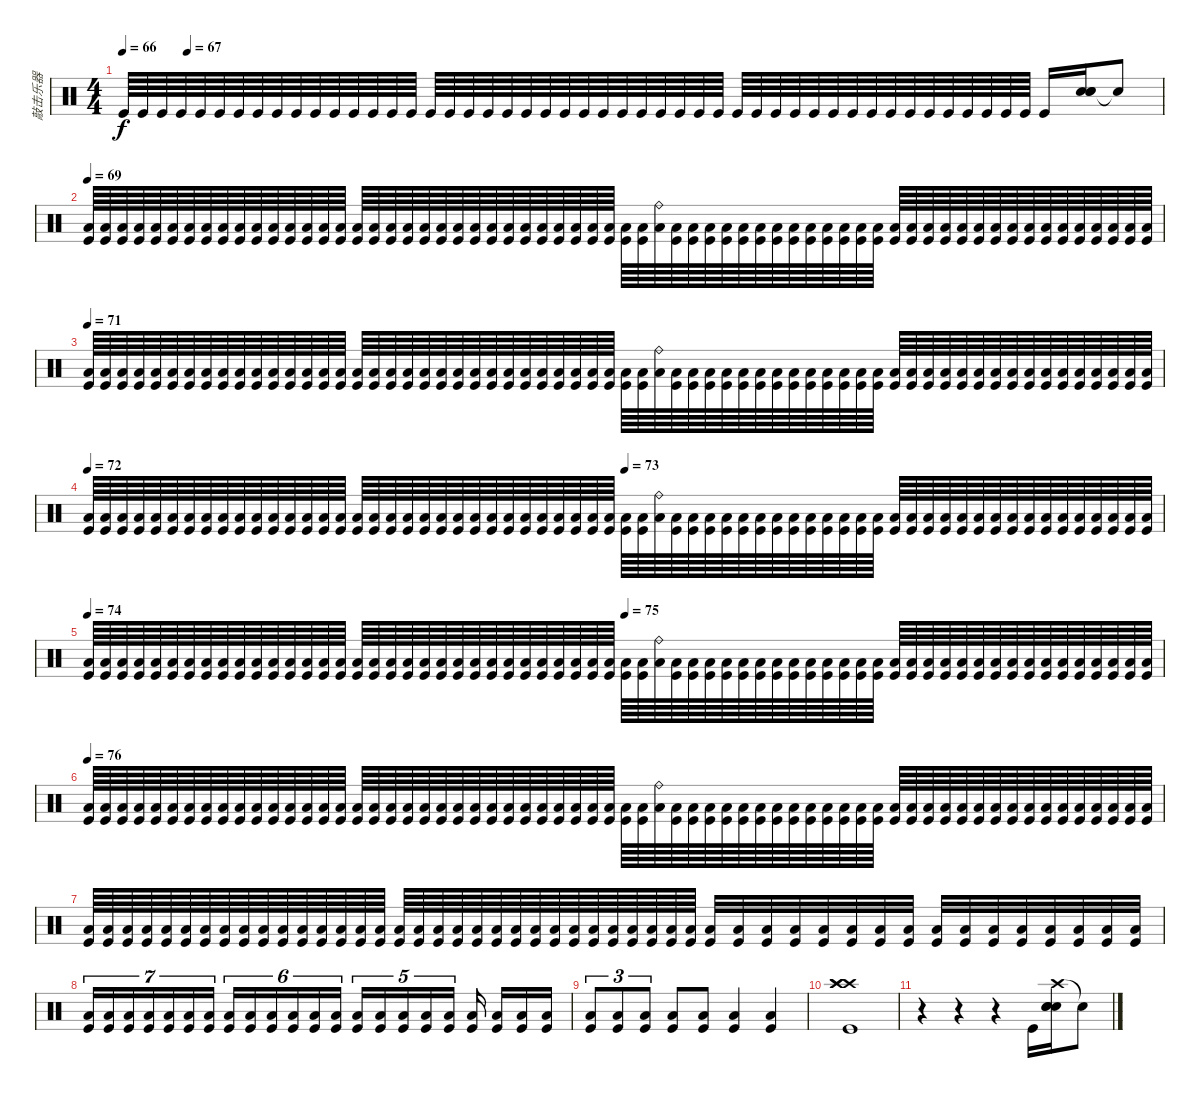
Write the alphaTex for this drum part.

\track ("敲击乐器" "敲击乐器") {instrument percussion}
\staff {score}
\articulation defaults
\ts (4 4)
\tempo 66
\tempo (67 0.0625)
\clef neutral
\ks c "Kick (hit)".64{dy f} "Kick (hit)".64 "Kick (hit)".64 "Kick (hit)".64 "Kick (hit)".64 "Kick (hit)".64 "Kick (hit)".64 "Kick (hit)".64 "Kick (hit)".64 "Kick (hit)".64 "Kick (hit)".64 "Kick (hit)".64 "Kick (hit)".64 "Kick (hit)".64 "Kick (hit)".64 "Kick (hit)".64 "Kick (hit)".64 "Kick (hit)".64 "Kick (hit)".64 "Kick (hit)".64 "Kick (hit)".64 "Kick (hit)".64 "Kick (hit)".64 "Kick (hit)".64 "Kick (hit)".64 "Kick (hit)".64 "Kick (hit)".64 "Kick (hit)".64 "Kick (hit)".64 "Kick (hit)".64 "Kick (hit)".64 "Kick (hit)".64 "Kick (hit)".64 "Kick (hit)".64 "Kick (hit)".64 "Kick (hit)".64 "Kick (hit)".64 "Kick (hit)".64 "Kick (hit)".64 "Kick (hit)".64 "Kick (hit)".64 "Kick (hit)".64 "Kick (hit)".64 "Kick (hit)".64 "Kick (hit)".64 "Kick (hit)".64 "Kick (hit)".64 "Kick (hit)".64 "Kick (hit)".16
("Snare (hit) 2" "Snare (hit) 2" "Snare (hit) 2").16 "Snare (hit)"{t}.8 |
\tempo 69
("Low Floor Tom (hit)" "Kick (hit)").64 ("Low Floor Tom (hit)" "Kick (hit)").64 ("Low Floor Tom (hit)" "Kick (hit)").64 ("Low Floor Tom (hit)" "Kick (hit)").64 ("Low Floor Tom (hit)" "Kick (hit)").64 ("Low Floor Tom (hit)" "Kick (hit)").64 ("Low Floor Tom (hit)" "Kick (hit)").64 ("Low Floor Tom (hit)" "Kick (hit)").64 ("Low Floor Tom (hit)" "Kick (hit)").64 ("Low Floor Tom (hit)" "Kick (hit)").64 ("Low Floor Tom (hit)" "Kick (hit)").64 ("Low Floor Tom (hit)" "Kick (hit)").64 ("Low Floor Tom (hit)" "Kick (hit)").64 ("Low Floor Tom (hit)" "Kick (hit)").64 ("Low Floor Tom (hit)" "Kick (hit)").64 ("Low Floor Tom (hit)" "Kick (hit)").64 ("Low Floor Tom (hit)" "Kick (hit)").64 ("Low Floor Tom (hit)" "Kick (hit)").64 ("Low Floor Tom (hit)" "Kick (hit)").64 ("Low Floor Tom (hit)" "Kick (hit)").64 ("Low Floor Tom (hit)" "Kick (hit)").64 ("Low Floor Tom (hit)" "Kick (hit)").64 ("Low Floor Tom (hit)" "Kick (hit)").64 ("Low Floor Tom (hit)" "Kick (hit)").64 ("Low Floor Tom (hit)" "Kick (hit)").64 ("Low Floor Tom (hit)" "Kick (hit)").64 ("Low Floor Tom (hit)" "Kick (hit)").64 ("Low Floor Tom (hit)" "Kick (hit)").64 ("Low Floor Tom (hit)" "Kick (hit)").64 ("Low Floor Tom (hit)" "Kick (hit)").64 ("Low Floor Tom (hit)" "Kick (hit)").64 ("Low Floor Tom (hit)" "Kick (hit)").64 ("Low Floor Tom (hit)" "Kick (hit)").64 ("Low Floor Tom (hit)" "Kick (hit)").64 ("Low Floor Tom (hit)" "Ride (bell)").64 ("Low Floor Tom (hit)" "Kick (hit)").64 ("Low Floor Tom (hit)" "Kick (hit)").64 ("Low Floor Tom (hit)" "Kick (hit)").64 ("Low Floor Tom (hit)" "Kick (hit)").64 ("Low Floor Tom (hit)" "Kick (hit)").64 ("Low Floor Tom (hit)" "Kick (hit)").64 ("Low Floor Tom (hit)" "Kick (hit)").64 ("Low Floor Tom (hit)" "Kick (hit)").64 ("Low Floor Tom (hit)" "Kick (hit)").64 ("Low Floor Tom (hit)" "Kick (hit)").64 ("Low Floor Tom (hit)" "Kick (hit)").64 ("Low Floor Tom (hit)" "Kick (hit)").64 ("Low Floor Tom (hit)" "Kick (hit)").64 ("Low Floor Tom (hit)" "Kick (hit)").64 ("Low Floor Tom (hit)" "Kick (hit)").64 ("Low Floor Tom (hit)" "Kick (hit)").64 ("Low Floor Tom (hit)" "Kick (hit)").64 ("Low Floor Tom (hit)" "Kick (hit)").64 ("Low Floor Tom (hit)" "Kick (hit)").64 ("Low Floor Tom (hit)" "Kick (hit)").64 ("Low Floor Tom (hit)" "Kick (hit)").64 ("Low Floor Tom (hit)" "Kick (hit)").64 ("Low Floor Tom (hit)" "Kick (hit)").64 ("Low Floor Tom (hit)" "Kick (hit)").64 ("Low Floor Tom (hit)" "Kick (hit)").64 ("Low Floor Tom (hit)" "Kick (hit)").64 ("Low Floor Tom (hit)" "Kick (hit)").64 ("Low Floor Tom (hit)" "Kick (hit)").64 ("Low Floor Tom (hit)" "Kick (hit)").64 |
\tempo 71
("Low Floor Tom (hit)" "Kick (hit)").64 ("Low Floor Tom (hit)" "Kick (hit)").64 ("Low Floor Tom (hit)" "Kick (hit)").64 ("Low Floor Tom (hit)" "Kick (hit)").64 ("Low Floor Tom (hit)" "Kick (hit)").64 ("Low Floor Tom (hit)" "Kick (hit)").64 ("Low Floor Tom (hit)" "Kick (hit)").64 ("Low Floor Tom (hit)" "Kick (hit)").64 ("Low Floor Tom (hit)" "Kick (hit)").64 ("Low Floor Tom (hit)" "Kick (hit)").64 ("Low Floor Tom (hit)" "Kick (hit)").64 ("Low Floor Tom (hit)" "Kick (hit)").64 ("Low Floor Tom (hit)" "Kick (hit)").64 ("Low Floor Tom (hit)" "Kick (hit)").64 ("Low Floor Tom (hit)" "Kick (hit)").64 ("Low Floor Tom (hit)" "Kick (hit)").64 ("Low Floor Tom (hit)" "Kick (hit)").64 ("Low Floor Tom (hit)" "Kick (hit)").64 ("Low Floor Tom (hit)" "Kick (hit)").64 ("Low Floor Tom (hit)" "Kick (hit)").64 ("Low Floor Tom (hit)" "Kick (hit)").64 ("Low Floor Tom (hit)" "Kick (hit)").64 ("Low Floor Tom (hit)" "Kick (hit)").64 ("Low Floor Tom (hit)" "Kick (hit)").64 ("Low Floor Tom (hit)" "Kick (hit)").64 ("Low Floor Tom (hit)" "Kick (hit)").64 ("Low Floor Tom (hit)" "Kick (hit)").64 ("Low Floor Tom (hit)" "Kick (hit)").64 ("Low Floor Tom (hit)" "Kick (hit)").64 ("Low Floor Tom (hit)" "Kick (hit)").64 ("Low Floor Tom (hit)" "Kick (hit)").64 ("Low Floor Tom (hit)" "Kick (hit)").64 ("Low Floor Tom (hit)" "Kick (hit)").64 ("Low Floor Tom (hit)" "Kick (hit)").64 ("Low Floor Tom (hit)" "Ride (bell)").64 ("Low Floor Tom (hit)" "Kick (hit)").64 ("Low Floor Tom (hit)" "Kick (hit)").64 ("Low Floor Tom (hit)" "Kick (hit)").64 ("Low Floor Tom (hit)" "Kick (hit)").64 ("Low Floor Tom (hit)" "Kick (hit)").64 ("Low Floor Tom (hit)" "Kick (hit)").64 ("Low Floor Tom (hit)" "Kick (hit)").64 ("Low Floor Tom (hit)" "Kick (hit)").64 ("Low Floor Tom (hit)" "Kick (hit)").64 ("Low Floor Tom (hit)" "Kick (hit)").64 ("Low Floor Tom (hit)" "Kick (hit)").64 ("Low Floor Tom (hit)" "Kick (hit)").64 ("Low Floor Tom (hit)" "Kick (hit)").64 ("Low Floor Tom (hit)" "Kick (hit)").64 ("Low Floor Tom (hit)" "Kick (hit)").64 ("Low Floor Tom (hit)" "Kick (hit)").64 ("Low Floor Tom (hit)" "Kick (hit)").64 ("Low Floor Tom (hit)" "Kick (hit)").64 ("Low Floor Tom (hit)" "Kick (hit)").64 ("Low Floor Tom (hit)" "Kick (hit)").64 ("Low Floor Tom (hit)" "Kick (hit)").64 ("Low Floor Tom (hit)" "Kick (hit)").64 ("Low Floor Tom (hit)" "Kick (hit)").64 ("Low Floor Tom (hit)" "Kick (hit)").64 ("Low Floor Tom (hit)" "Kick (hit)").64 ("Low Floor Tom (hit)" "Kick (hit)").64 ("Low Floor Tom (hit)" "Kick (hit)").64 ("Low Floor Tom (hit)" "Kick (hit)").64 ("Low Floor Tom (hit)" "Kick (hit)").64 |
\tempo 72
\tempo (73 0.5)
("Low Floor Tom (hit)" "Kick (hit)").64 ("Low Floor Tom (hit)" "Kick (hit)").64 ("Low Floor Tom (hit)" "Kick (hit)").64 ("Low Floor Tom (hit)" "Kick (hit)").64 ("Low Floor Tom (hit)" "Kick (hit)").64 ("Low Floor Tom (hit)" "Kick (hit)").64 ("Low Floor Tom (hit)" "Kick (hit)").64 ("Low Floor Tom (hit)" "Kick (hit)").64 ("Low Floor Tom (hit)" "Kick (hit)").64 ("Low Floor Tom (hit)" "Kick (hit)").64 ("Low Floor Tom (hit)" "Kick (hit)").64 ("Low Floor Tom (hit)" "Kick (hit)").64 ("Low Floor Tom (hit)" "Kick (hit)").64 ("Low Floor Tom (hit)" "Kick (hit)").64 ("Low Floor Tom (hit)" "Kick (hit)").64 ("Low Floor Tom (hit)" "Kick (hit)").64 ("Low Floor Tom (hit)" "Kick (hit)").64 ("Low Floor Tom (hit)" "Kick (hit)").64 ("Low Floor Tom (hit)" "Kick (hit)").64 ("Low Floor Tom (hit)" "Kick (hit)").64 ("Low Floor Tom (hit)" "Kick (hit)").64 ("Low Floor Tom (hit)" "Kick (hit)").64 ("Low Floor Tom (hit)" "Kick (hit)").64 ("Low Floor Tom (hit)" "Kick (hit)").64 ("Low Floor Tom (hit)" "Kick (hit)").64 ("Low Floor Tom (hit)" "Kick (hit)").64 ("Low Floor Tom (hit)" "Kick (hit)").64 ("Low Floor Tom (hit)" "Kick (hit)").64 ("Low Floor Tom (hit)" "Kick (hit)").64 ("Low Floor Tom (hit)" "Kick (hit)").64 ("Low Floor Tom (hit)" "Kick (hit)").64 ("Low Floor Tom (hit)" "Kick (hit)").64 ("Low Floor Tom (hit)" "Kick (hit)").64 ("Low Floor Tom (hit)" "Kick (hit)").64 ("Low Floor Tom (hit)" "Ride (bell)").64 ("Low Floor Tom (hit)" "Kick (hit)").64 ("Low Floor Tom (hit)" "Kick (hit)").64 ("Low Floor Tom (hit)" "Kick (hit)").64 ("Low Floor Tom (hit)" "Kick (hit)").64 ("Low Floor Tom (hit)" "Kick (hit)").64 ("Low Floor Tom (hit)" "Kick (hit)").64 ("Low Floor Tom (hit)" "Kick (hit)").64 ("Low Floor Tom (hit)" "Kick (hit)").64 ("Low Floor Tom (hit)" "Kick (hit)").64 ("Low Floor Tom (hit)" "Kick (hit)").64 ("Low Floor Tom (hit)" "Kick (hit)").64 ("Low Floor Tom (hit)" "Kick (hit)").64 ("Low Floor Tom (hit)" "Kick (hit)").64 ("Low Floor Tom (hit)" "Kick (hit)").64 ("Low Floor Tom (hit)" "Kick (hit)").64 ("Low Floor Tom (hit)" "Kick (hit)").64 ("Low Floor Tom (hit)" "Kick (hit)").64 ("Low Floor Tom (hit)" "Kick (hit)").64 ("Low Floor Tom (hit)" "Kick (hit)").64 ("Low Floor Tom (hit)" "Kick (hit)").64 ("Low Floor Tom (hit)" "Kick (hit)").64 ("Low Floor Tom (hit)" "Kick (hit)").64 ("Low Floor Tom (hit)" "Kick (hit)").64 ("Low Floor Tom (hit)" "Kick (hit)").64 ("Low Floor Tom (hit)" "Kick (hit)").64 ("Low Floor Tom (hit)" "Kick (hit)").64 ("Low Floor Tom (hit)" "Kick (hit)").64 ("Low Floor Tom (hit)" "Kick (hit)").64 ("Low Floor Tom (hit)" "Kick (hit)").64 |
\tempo 74
\tempo (75 0.5)
("Low Floor Tom (hit)" "Kick (hit)").64 ("Low Floor Tom (hit)" "Kick (hit)").64 ("Low Floor Tom (hit)" "Kick (hit)").64 ("Low Floor Tom (hit)" "Kick (hit)").64 ("Low Floor Tom (hit)" "Kick (hit)").64 ("Low Floor Tom (hit)" "Kick (hit)").64 ("Low Floor Tom (hit)" "Kick (hit)").64 ("Low Floor Tom (hit)" "Kick (hit)").64 ("Low Floor Tom (hit)" "Kick (hit)").64 ("Low Floor Tom (hit)" "Kick (hit)").64 ("Low Floor Tom (hit)" "Kick (hit)").64 ("Low Floor Tom (hit)" "Kick (hit)").64 ("Low Floor Tom (hit)" "Kick (hit)").64 ("Low Floor Tom (hit)" "Kick (hit)").64 ("Low Floor Tom (hit)" "Kick (hit)").64 ("Low Floor Tom (hit)" "Kick (hit)").64 ("Low Floor Tom (hit)" "Kick (hit)").64 ("Low Floor Tom (hit)" "Kick (hit)").64 ("Low Floor Tom (hit)" "Kick (hit)").64 ("Low Floor Tom (hit)" "Kick (hit)").64 ("Low Floor Tom (hit)" "Kick (hit)").64 ("Low Floor Tom (hit)" "Kick (hit)").64 ("Low Floor Tom (hit)" "Kick (hit)").64 ("Low Floor Tom (hit)" "Kick (hit)").64 ("Low Floor Tom (hit)" "Kick (hit)").64 ("Low Floor Tom (hit)" "Kick (hit)").64 ("Low Floor Tom (hit)" "Kick (hit)").64 ("Low Floor Tom (hit)" "Kick (hit)").64 ("Low Floor Tom (hit)" "Kick (hit)").64 ("Low Floor Tom (hit)" "Kick (hit)").64 ("Low Floor Tom (hit)" "Kick (hit)").64 ("Low Floor Tom (hit)" "Kick (hit)").64 ("Low Floor Tom (hit)" "Kick (hit)").64 ("Low Floor Tom (hit)" "Kick (hit)").64 ("Low Floor Tom (hit)" "Ride (bell)").64 ("Low Floor Tom (hit)" "Kick (hit)").64 ("Low Floor Tom (hit)" "Kick (hit)").64 ("Low Floor Tom (hit)" "Kick (hit)").64 ("Low Floor Tom (hit)" "Kick (hit)").64 ("Low Floor Tom (hit)" "Kick (hit)").64 ("Low Floor Tom (hit)" "Kick (hit)").64 ("Low Floor Tom (hit)" "Kick (hit)").64 ("Low Floor Tom (hit)" "Kick (hit)").64 ("Low Floor Tom (hit)" "Kick (hit)").64 ("Low Floor Tom (hit)" "Kick (hit)").64 ("Low Floor Tom (hit)" "Kick (hit)").64 ("Low Floor Tom (hit)" "Kick (hit)").64 ("Low Floor Tom (hit)" "Kick (hit)").64 ("Low Floor Tom (hit)" "Kick (hit)").64 ("Low Floor Tom (hit)" "Kick (hit)").64 ("Low Floor Tom (hit)" "Kick (hit)").64 ("Low Floor Tom (hit)" "Kick (hit)").64 ("Low Floor Tom (hit)" "Kick (hit)").64 ("Low Floor Tom (hit)" "Kick (hit)").64 ("Low Floor Tom (hit)" "Kick (hit)").64 ("Low Floor Tom (hit)" "Kick (hit)").64 ("Low Floor Tom (hit)" "Kick (hit)").64 ("Low Floor Tom (hit)" "Kick (hit)").64 ("Low Floor Tom (hit)" "Kick (hit)").64 ("Low Floor Tom (hit)" "Kick (hit)").64 ("Low Floor Tom (hit)" "Kick (hit)").64 ("Low Floor Tom (hit)" "Kick (hit)").64 ("Low Floor Tom (hit)" "Kick (hit)").64 ("Low Floor Tom (hit)" "Kick (hit)").64 |
\tempo 76
("Low Floor Tom (hit)" "Kick (hit)").64 ("Low Floor Tom (hit)" "Kick (hit)").64 ("Low Floor Tom (hit)" "Kick (hit)").64 ("Low Floor Tom (hit)" "Kick (hit)").64 ("Low Floor Tom (hit)" "Kick (hit)").64 ("Low Floor Tom (hit)" "Kick (hit)").64 ("Low Floor Tom (hit)" "Kick (hit)").64 ("Low Floor Tom (hit)" "Kick (hit)").64 ("Low Floor Tom (hit)" "Kick (hit)").64 ("Low Floor Tom (hit)" "Kick (hit)").64 ("Low Floor Tom (hit)" "Kick (hit)").64 ("Low Floor Tom (hit)" "Kick (hit)").64 ("Low Floor Tom (hit)" "Kick (hit)").64 ("Low Floor Tom (hit)" "Kick (hit)").64 ("Low Floor Tom (hit)" "Kick (hit)").64 ("Low Floor Tom (hit)" "Kick (hit)").64 ("Low Floor Tom (hit)" "Kick (hit)").64 ("Low Floor Tom (hit)" "Kick (hit)").64 ("Low Floor Tom (hit)" "Kick (hit)").64 ("Low Floor Tom (hit)" "Kick (hit)").64 ("Low Floor Tom (hit)" "Kick (hit)").64 ("Low Floor Tom (hit)" "Kick (hit)").64 ("Low Floor Tom (hit)" "Kick (hit)").64 ("Low Floor Tom (hit)" "Kick (hit)").64 ("Low Floor Tom (hit)" "Kick (hit)").64 ("Low Floor Tom (hit)" "Kick (hit)").64 ("Low Floor Tom (hit)" "Kick (hit)").64 ("Low Floor Tom (hit)" "Kick (hit)").64 ("Low Floor Tom (hit)" "Kick (hit)").64 ("Low Floor Tom (hit)" "Kick (hit)").64 ("Low Floor Tom (hit)" "Kick (hit)").64 ("Low Floor Tom (hit)" "Kick (hit)").64 ("Low Floor Tom (hit)" "Kick (hit)").64 ("Low Floor Tom (hit)" "Kick (hit)").64 ("Low Floor Tom (hit)" "Ride (bell)").64 ("Low Floor Tom (hit)" "Kick (hit)").64 ("Low Floor Tom (hit)" "Kick (hit)").64 ("Low Floor Tom (hit)" "Kick (hit)").64 ("Low Floor Tom (hit)" "Kick (hit)").64 ("Low Floor Tom (hit)" "Kick (hit)").64 ("Low Floor Tom (hit)" "Kick (hit)").64 ("Low Floor Tom (hit)" "Kick (hit)").64 ("Low Floor Tom (hit)" "Kick (hit)").64 ("Low Floor Tom (hit)" "Kick (hit)").64 ("Low Floor Tom (hit)" "Kick (hit)").64 ("Low Floor Tom (hit)" "Kick (hit)").64 ("Low Floor Tom (hit)" "Kick (hit)").64 ("Low Floor Tom (hit)" "Kick (hit)").64 ("Low Floor Tom (hit)" "Kick (hit)").64 ("Low Floor Tom (hit)" "Kick (hit)").64 ("Low Floor Tom (hit)" "Kick (hit)").64 ("Low Floor Tom (hit)" "Kick (hit)").64 ("Low Floor Tom (hit)" "Kick (hit)").64 ("Low Floor Tom (hit)" "Kick (hit)").64 ("Low Floor Tom (hit)" "Kick (hit)").64 ("Low Floor Tom (hit)" "Kick (hit)").64 ("Low Floor Tom (hit)" "Kick (hit)").64 ("Low Floor Tom (hit)" "Kick (hit)").64 ("Low Floor Tom (hit)" "Kick (hit)").64 ("Low Floor Tom (hit)" "Kick (hit)").64 ("Low Floor Tom (hit)" "Kick (hit)").64 ("Low Floor Tom (hit)" "Kick (hit)").64 ("Low Floor Tom (hit)" "Kick (hit)").64 ("Low Floor Tom (hit)" "Kick (hit)").64 |
("Low Floor Tom (hit)" "Kick (hit)").64 ("Low Floor Tom (hit)" "Kick (hit)").64 ("Low Floor Tom (hit)" "Kick (hit)").64 ("Low Floor Tom (hit)" "Kick (hit)").64 ("Low Floor Tom (hit)" "Kick (hit)").64 ("Low Floor Tom (hit)" "Kick (hit)").64 ("Low Floor Tom (hit)" "Kick (hit)").64 ("Low Floor Tom (hit)" "Kick (hit)").64 ("Low Floor Tom (hit)" "Kick (hit)").64 ("Low Floor Tom (hit)" "Kick (hit)").64 ("Low Floor Tom (hit)" "Kick (hit)").64 ("Low Floor Tom (hit)" "Kick (hit)").64 ("Low Floor Tom (hit)" "Kick (hit)").64 ("Low Floor Tom (hit)" "Kick (hit)").64 ("Low Floor Tom (hit)" "Kick (hit)").64 ("Low Floor Tom (hit)" "Kick (hit)").64 ("Low Floor Tom (hit)" "Kick (hit)").64 ("Low Floor Tom (hit)" "Kick (hit)").64 ("Low Floor Tom (hit)" "Kick (hit)").64 ("Low Floor Tom (hit)" "Kick (hit)").64 ("Low Floor Tom (hit)" "Kick (hit)").64 ("Low Floor Tom (hit)" "Kick (hit)").64 ("Low Floor Tom (hit)" "Kick (hit)").64 ("Low Floor Tom (hit)" "Kick (hit)").64 ("Low Floor Tom (hit)" "Kick (hit)").64 ("Low Floor Tom (hit)" "Kick (hit)").64 ("Low Floor Tom (hit)" "Kick (hit)").64 ("Low Floor Tom (hit)" "Kick (hit)").64 ("Low Floor Tom (hit)" "Kick (hit)").64 ("Low Floor Tom (hit)" "Kick (hit)").64 ("Low Floor Tom (hit)" "Kick (hit)").64 ("Low Floor Tom (hit)" "Kick (hit)").64 ("Low Floor Tom (hit)" "Kick (hit)").32 ("Low Floor Tom (hit)" "Kick (hit)").32 ("Low Floor Tom (hit)" "Kick (hit)").32 ("Low Floor Tom (hit)" "Kick (hit)").32 ("Low Floor Tom (hit)" "Kick (hit)").32 ("Low Floor Tom (hit)" "Kick (hit)").32 ("Low Floor Tom (hit)" "Kick (hit)").32 ("Low Floor Tom (hit)" "Kick (hit)").32 ("Low Floor Tom (hit)" "Kick (hit)").32 ("Low Floor Tom (hit)" "Kick (hit)").32 ("Low Floor Tom (hit)" "Kick (hit)").32 ("Low Floor Tom (hit)" "Kick (hit)").32 ("Low Floor Tom (hit)" "Kick (hit)").32 ("Low Floor Tom (hit)" "Kick (hit)").32 ("Low Floor Tom (hit)" "Kick (hit)").32 ("Low Floor Tom (hit)" "Kick (hit)").32 |
("Low Floor Tom (hit)" "Kick (hit)").16{tu (7 4)} ("Low Floor Tom (hit)" "Kick (hit)").16{tu (7 4)} ("Low Floor Tom (hit)" "Kick (hit)").16{tu (7 4)} ("Low Floor Tom (hit)" "Kick (hit)").16{tu (7 4)} ("Low Floor Tom (hit)" "Kick (hit)").16{tu (7 4)} ("Low Floor Tom (hit)" "Kick (hit)").16{tu (7 4)} ("Low Floor Tom (hit)" "Kick (hit)").16{tu (7 4)} ("Low Floor Tom (hit)" "Kick (hit)").16{tu (6 4)} ("Low Floor Tom (hit)" "Kick (hit)").16{tu (6 4)} ("Low Floor Tom (hit)" "Kick (hit)").16{tu (6 4)} ("Low Floor Tom (hit)" "Kick (hit)").16{tu (6 4)} ("Low Floor Tom (hit)" "Kick (hit)").16{tu (6 4)} ("Low Floor Tom (hit)" "Kick (hit)").16{tu (6 4)} ("Low Floor Tom (hit)" "Kick (hit)").16{tu (5 4)} ("Low Floor Tom (hit)" "Kick (hit)").16{tu (5 4)} ("Low Floor Tom (hit)" "Kick (hit)").16{tu (5 4)} ("Low Floor Tom (hit)" "Kick (hit)").16{tu (5 4)} ("Low Floor Tom (hit)" "Kick (hit)").16{tu (5 4)} ("Low Floor Tom (hit)" "Kick (hit)").16 ("Low Floor Tom (hit)" "Kick (hit)").16 ("Low Floor Tom (hit)" "Kick (hit)").16 ("Low Floor Tom (hit)" "Kick (hit)").16 |
("Low Floor Tom (hit)" "Kick (hit)").8{tu (3 2)} ("Low Floor Tom (hit)" "Kick (hit)").8{tu (3 2)} ("Low Floor Tom (hit)" "Kick (hit)").8{tu (3 2)} ("Low Floor Tom (hit)" "Kick (hit)").8 ("Low Floor Tom (hit)" "Kick (hit)").8 ("Low Floor Tom (hit)" "Kick (hit)").4 ("Low Floor Tom (hit)" "Kick (hit)").4 |
("Crash high (hit)" "Crash high (hit)" "Crash high (hit)" "Kick (hit)").1 |
r.4 r.4 r.4 "Kick (hit)".16 ("Crash high (hit)" "Snare (hit) 2" "Snare (hit) 2" "Snare (hit) 2").16 "Snare (hit)"{t}.8
